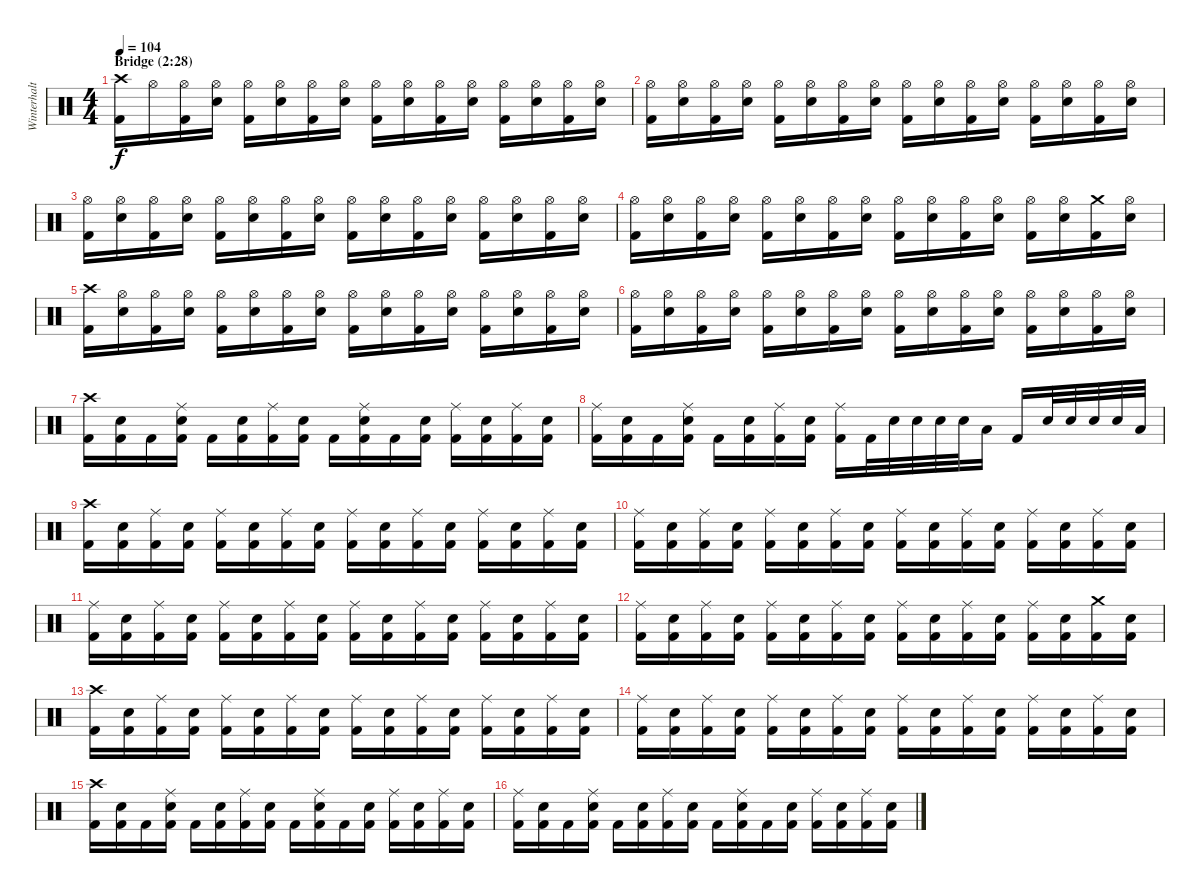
\track ("Winterhalten" "Winterhalt") {instrument percussion}
\staff {score}
\articulation defaults
\ts (4 4)
\section ("" "Bridge (2:28)")
\tempo 104
\clef neutral
\ks c
("Kick (hit) 2" "Crash high (hit)").16{dy f} "Hi-Hat (open)".16 ("Kick (hit) 2" "Hi-Hat (open)").16 ("Snare (hit) 2" "Hi-Hat (open)").16 ("Kick (hit) 2" "Hi-Hat (open)").16 ("Snare (hit) 2" "Hi-Hat (open)").16 ("Kick (hit) 2" "Hi-Hat (open)").16 ("Snare (hit) 2" "Hi-Hat (open)").16 ("Kick (hit) 2" "Hi-Hat (open)").16 ("Snare (hit) 2" "Hi-Hat (open)").16 ("Kick (hit) 2" "Hi-Hat (open)").16 ("Snare (hit) 2" "Hi-Hat (open)").16 ("Kick (hit) 2" "Hi-Hat (open)").16 ("Snare (hit) 2" "Hi-Hat (open)").16 ("Kick (hit) 2" "Hi-Hat (open)").16 ("Snare (hit) 2" "Hi-Hat (open)").16 |
("Kick (hit) 2" "Hi-Hat (open)").16 ("Snare (hit) 2" "Hi-Hat (open)").16 ("Kick (hit) 2" "Hi-Hat (open)").16 ("Snare (hit) 2" "Hi-Hat (open)").16 ("Kick (hit) 2" "Hi-Hat (open)").16 ("Snare (hit) 2" "Hi-Hat (open)").16 ("Kick (hit) 2" "Hi-Hat (open)").16 ("Snare (hit) 2" "Hi-Hat (open)").16 ("Kick (hit) 2" "Hi-Hat (open)").16 ("Snare (hit) 2" "Hi-Hat (open)").16 ("Kick (hit) 2" "Hi-Hat (open)").16 ("Snare (hit) 2" "Hi-Hat (open)").16 ("Kick (hit) 2" "Hi-Hat (open)").16 ("Snare (hit) 2" "Hi-Hat (open)").16 ("Kick (hit) 2" "Hi-Hat (open)").16 ("Snare (hit) 2" "Hi-Hat (open)").16 |
("Kick (hit) 2" "Hi-Hat (open)").16 ("Snare (hit) 2" "Hi-Hat (open)").16 ("Kick (hit) 2" "Hi-Hat (open)").16 ("Snare (hit) 2" "Hi-Hat (open)").16 ("Kick (hit) 2" "Hi-Hat (open)").16 ("Snare (hit) 2" "Hi-Hat (open)").16 ("Kick (hit) 2" "Hi-Hat (open)").16 ("Snare (hit) 2" "Hi-Hat (open)").16 ("Kick (hit) 2" "Hi-Hat (open)").16 ("Snare (hit) 2" "Hi-Hat (open)").16 ("Kick (hit) 2" "Hi-Hat (open)").16 ("Snare (hit) 2" "Hi-Hat (open)").16 ("Kick (hit) 2" "Hi-Hat (open)").16 ("Snare (hit) 2" "Hi-Hat (open)").16 ("Kick (hit) 2" "Hi-Hat (open)").16 ("Snare (hit) 2" "Hi-Hat (open)").16 |
("Kick (hit) 2" "Hi-Hat (open)").16 ("Snare (hit) 2" "Hi-Hat (open)").16 ("Kick (hit) 2" "Hi-Hat (open)").16 ("Snare (hit) 2" "Hi-Hat (open)").16 ("Kick (hit) 2" "Hi-Hat (open)").16 ("Snare (hit) 2" "Hi-Hat (open)").16 ("Kick (hit) 2" "Hi-Hat (open)").16 ("Snare (hit) 2" "Hi-Hat (open)").16 ("Kick (hit) 2" "Hi-Hat (open)").16 ("Snare (hit) 2" "Hi-Hat (open)").16 ("Kick (hit) 2" "Hi-Hat (open)").16 ("Snare (hit) 2" "Hi-Hat (open)").16 ("Kick (hit) 2" "Hi-Hat (open)").16 ("Snare (hit) 2" "Hi-Hat (open)").16 ("Kick (hit) 2" "Crash medium (hit)").16 ("Snare (hit) 2" "Hi-Hat (open)").16 |
("Kick (hit) 2" "Crash high (hit)").16 ("Snare (hit) 2" "Hi-Hat (open)").16 ("Kick (hit) 2" "Hi-Hat (open)").16 ("Snare (hit) 2" "Hi-Hat (open)").16 ("Kick (hit) 2" "Hi-Hat (open)").16 ("Snare (hit) 2" "Hi-Hat (open)").16 ("Kick (hit) 2" "Hi-Hat (open)").16 ("Snare (hit) 2" "Hi-Hat (open)").16 ("Kick (hit) 2" "Hi-Hat (open)").16 ("Snare (hit) 2" "Hi-Hat (open)").16 ("Kick (hit) 2" "Hi-Hat (open)").16 ("Snare (hit) 2" "Hi-Hat (open)").16 ("Kick (hit) 2" "Hi-Hat (open)").16 ("Snare (hit) 2" "Hi-Hat (open)").16 ("Kick (hit) 2" "Hi-Hat (open)").16 ("Snare (hit) 2" "Hi-Hat (open)").16 |
("Kick (hit) 2" "Hi-Hat (open)").16 ("Snare (hit) 2" "Hi-Hat (open)").16 ("Kick (hit) 2" "Hi-Hat (open)").16 ("Snare (hit) 2" "Hi-Hat (open)").16 ("Kick (hit) 2" "Hi-Hat (open)").16 ("Snare (hit) 2" "Hi-Hat (open)").16 ("Kick (hit) 2" "Hi-Hat (open)").16 ("Snare (hit) 2" "Hi-Hat (open)").16 ("Kick (hit) 2" "Hi-Hat (open)").16 ("Snare (hit) 2" "Hi-Hat (open)").16 ("Kick (hit) 2" "Hi-Hat (open)").16 ("Snare (hit) 2" "Hi-Hat (open)").16 ("Kick (hit) 2" "Hi-Hat (open)").16 ("Snare (hit) 2" "Hi-Hat (open)").16 ("Kick (hit) 2" "Hi-Hat (open)").16 ("Snare (hit) 2" "Hi-Hat (open)").16 |
("Kick (hit) 2" "Crash high (hit)").16 ("Snare (hit) 2" "Kick (hit) 2").16 "Kick (hit) 2".16 ("Snare (hit) 2" "Kick (hit) 2" "Ride (middle)").16 "Kick (hit) 2".16 ("Snare (hit) 2" "Kick (hit) 2").16 ("Kick (hit) 2" "Ride (middle)").16 ("Snare (hit) 2" "Kick (hit) 2").16 "Kick (hit) 2".16 ("Snare (hit) 2" "Kick (hit) 2" "Ride (middle)").16 "Kick (hit) 2".16 ("Snare (hit) 2" "Kick (hit) 2").16 ("Kick (hit) 2" "Ride (middle)").16 ("Snare (hit) 2" "Kick (hit) 2").16 ("Kick (hit) 2" "Ride (middle)").16 ("Snare (hit) 2" "Kick (hit) 2").16 |
("Kick (hit) 2" "Ride (middle)").16 ("Snare (hit) 2" "Kick (hit) 2").16 "Kick (hit) 2".16 ("Snare (hit) 2" "Kick (hit) 2" "Ride (middle)").16 "Kick (hit) 2".16 ("Snare (hit) 2" "Kick (hit) 2").16 ("Kick (hit) 2" "Ride (middle)").16 ("Snare (hit) 2" "Kick (hit) 2").16 ("Kick (hit) 2" "Ride (middle)").16 "Kick (hit) 2".32 "Snare (hit) 2".32 "Snare (hit) 2".32 "Snare (hit) 2".32 "Snare (hit) 2".32 "Low Tom (hit)".16 "Kick (hit) 2".16 "Snare (hit) 2".32 "Snare (hit) 2".32 "Snare (hit) 2".32 "Snare (hit) 2".32 "Low Floor Tom (hit)".32 |
("Kick (hit) 2" "Crash high (hit)").16 ("Snare (hit) 2" "Kick (hit) 2").16 ("Kick (hit) 2" "Ride (middle)").16 ("Snare (hit) 2" "Kick (hit) 2").16 ("Kick (hit) 2" "Ride (middle)").16 ("Snare (hit) 2" "Kick (hit) 2").16 ("Kick (hit) 2" "Ride (middle)").16 ("Snare (hit) 2" "Kick (hit) 2").16 ("Kick (hit) 2" "Ride (middle)").16 ("Snare (hit) 2" "Kick (hit) 2").16 ("Kick (hit) 2" "Ride (middle)").16 ("Snare (hit) 2" "Kick (hit) 2").16 ("Kick (hit) 2" "Ride (middle)").16 ("Snare (hit) 2" "Kick (hit) 2").16 ("Kick (hit) 2" "Ride (middle)").16 ("Snare (hit) 2" "Kick (hit) 2").16 |
("Kick (hit) 2" "Ride (middle)").16 ("Snare (hit) 2" "Kick (hit) 2").16 ("Kick (hit) 2" "Ride (middle)").16 ("Snare (hit) 2" "Kick (hit) 2").16 ("Kick (hit) 2" "Ride (middle)").16 ("Snare (hit) 2" "Kick (hit) 2").16 ("Kick (hit) 2" "Ride (middle)").16 ("Snare (hit) 2" "Kick (hit) 2").16 ("Kick (hit) 2" "Ride (middle)").16 ("Snare (hit) 2" "Kick (hit) 2").16 ("Kick (hit) 2" "Ride (middle)").16 ("Snare (hit) 2" "Kick (hit) 2").16 ("Kick (hit) 2" "Ride (middle)").16 ("Snare (hit) 2" "Kick (hit) 2").16 ("Kick (hit) 2" "Ride (middle)").16 ("Snare (hit) 2" "Kick (hit) 2").16 |
("Kick (hit) 2" "Ride (middle)").16 ("Snare (hit) 2" "Kick (hit) 2").16 ("Kick (hit) 2" "Ride (middle)").16 ("Snare (hit) 2" "Kick (hit) 2").16 ("Kick (hit) 2" "Ride (middle)").16 ("Snare (hit) 2" "Kick (hit) 2").16 ("Kick (hit) 2" "Ride (middle)").16 ("Snare (hit) 2" "Kick (hit) 2").16 ("Kick (hit) 2" "Ride (middle)").16 ("Snare (hit) 2" "Kick (hit) 2").16 ("Kick (hit) 2" "Ride (middle)").16 ("Snare (hit) 2" "Kick (hit) 2").16 ("Kick (hit) 2" "Ride (middle)").16 ("Snare (hit) 2" "Kick (hit) 2").16 ("Kick (hit) 2" "Ride (middle)").16 ("Snare (hit) 2" "Kick (hit) 2").16 |
("Kick (hit) 2" "Ride (middle)").16 ("Snare (hit) 2" "Kick (hit) 2").16 ("Kick (hit) 2" "Ride (middle)").16 ("Snare (hit) 2" "Kick (hit) 2").16 ("Kick (hit) 2" "Ride (middle)").16 ("Snare (hit) 2" "Kick (hit) 2").16 ("Kick (hit) 2" "Ride (middle)").16 ("Snare (hit) 2" "Kick (hit) 2").16 ("Kick (hit) 2" "Ride (middle)").16 ("Snare (hit) 2" "Kick (hit) 2").16 ("Kick (hit) 2" "Ride (middle)").16 ("Snare (hit) 2" "Kick (hit) 2").16 ("Kick (hit) 2" "Ride (middle)").16 ("Snare (hit) 2" "Kick (hit) 2").16 ("Kick (hit) 2" "Crash medium (hit)").16 ("Snare (hit) 2" "Kick (hit) 2").16 |
("Kick (hit) 2" "Crash high (hit)").16 ("Snare (hit) 2" "Kick (hit) 2").16 ("Kick (hit) 2" "Ride (middle)").16 ("Snare (hit) 2" "Kick (hit) 2").16 ("Kick (hit) 2" "Ride (middle)").16 ("Snare (hit) 2" "Kick (hit) 2").16 ("Kick (hit) 2" "Ride (middle)").16 ("Snare (hit) 2" "Kick (hit) 2").16 ("Kick (hit) 2" "Ride (middle)").16 ("Snare (hit) 2" "Kick (hit) 2").16 ("Kick (hit) 2" "Ride (middle)").16 ("Snare (hit) 2" "Kick (hit) 2").16 ("Kick (hit) 2" "Ride (middle)").16 ("Snare (hit) 2" "Kick (hit) 2").16 ("Kick (hit) 2" "Ride (middle)").16 ("Snare (hit) 2" "Kick (hit) 2").16 |
("Kick (hit) 2" "Ride (middle)").16 ("Snare (hit) 2" "Kick (hit) 2").16 ("Kick (hit) 2" "Ride (middle)").16 ("Snare (hit) 2" "Kick (hit) 2").16 ("Kick (hit) 2" "Ride (middle)").16 ("Snare (hit) 2" "Kick (hit) 2").16 ("Kick (hit) 2" "Ride (middle)").16 ("Snare (hit) 2" "Kick (hit) 2").16 ("Kick (hit) 2" "Ride (middle)").16 ("Snare (hit) 2" "Kick (hit) 2").16 ("Kick (hit) 2" "Ride (middle)").16 ("Snare (hit) 2" "Kick (hit) 2").16 ("Kick (hit) 2" "Ride (middle)").16 ("Snare (hit) 2" "Kick (hit) 2").16 ("Kick (hit) 2" "Ride (middle)").16 ("Snare (hit) 2" "Kick (hit) 2").16 |
("Kick (hit) 2" "Crash high (hit)").16 ("Snare (hit) 2" "Kick (hit) 2").16 "Kick (hit) 2".16 ("Snare (hit) 2" "Kick (hit) 2" "Ride (middle)").16 "Kick (hit) 2".16 ("Snare (hit) 2" "Kick (hit) 2").16 ("Kick (hit) 2" "Ride (middle)").16 ("Snare (hit) 2" "Kick (hit) 2").16 "Kick (hit) 2".16 ("Snare (hit) 2" "Kick (hit) 2" "Ride (middle)").16 "Kick (hit) 2".16 ("Snare (hit) 2" "Kick (hit) 2").16 ("Kick (hit) 2" "Ride (middle)").16 ("Snare (hit) 2" "Kick (hit) 2").16 ("Kick (hit) 2" "Ride (middle)").16 ("Snare (hit) 2" "Kick (hit) 2").16 |
("Kick (hit) 2" "Ride (middle)").16 ("Snare (hit) 2" "Kick (hit) 2").16 "Kick (hit) 2".16 ("Snare (hit) 2" "Kick (hit) 2" "Ride (middle)").16 "Kick (hit) 2".16 ("Snare (hit) 2" "Kick (hit) 2").16 ("Kick (hit) 2" "Ride (middle)").16 ("Snare (hit) 2" "Kick (hit) 2").16 "Kick (hit) 2".16 ("Snare (hit) 2" "Kick (hit) 2" "Ride (middle)").16 "Kick (hit) 2".16 ("Snare (hit) 2" "Kick (hit) 2").16 ("Kick (hit) 2" "Ride (middle)").16 ("Snare (hit) 2" "Kick (hit) 2").16 ("Kick (hit) 2" "Ride (middle)").16 ("Snare (hit) 2" "Kick (hit) 2").16
